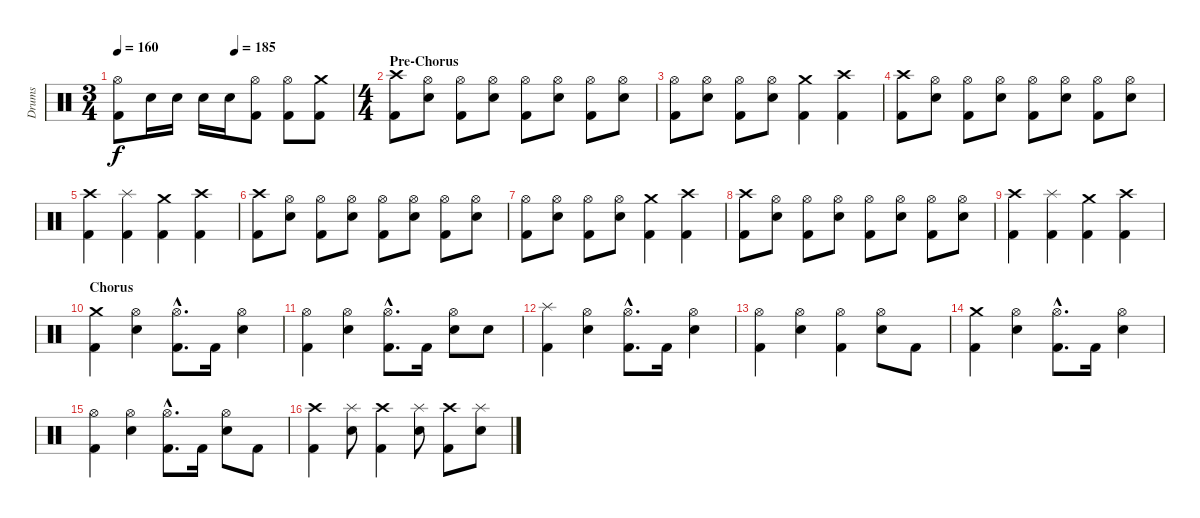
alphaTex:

\track ("Drums" "Drums") {instrument percussion}
\staff {score}
\articulation defaults
\ts (3 4)
\tempo 160
\tempo (185 0.5)
\clef neutral
\ks c
("Hi-Hat (open)" "Kick (hit) 2").8{dy f} "Snare (hit) 2".16 "Snare (hit) 2".16 "Snare (hit) 2".16 "Snare (hit) 2".16 ("Hi-Hat (open)" "Kick (hit) 2").8 ("Hi-Hat (open)" "Kick (hit) 2").8 ("Crash medium (hit)" "Kick (hit) 2").8 |
\ts (4 4)
\section ("" "Pre-Chorus")
("Crash high (hit)" "Kick (hit) 2").8 ("Hi-Hat (open)" "Snare (hit) 2").8 ("Hi-Hat (open)" "Kick (hit) 2").8 ("Hi-Hat (open)" "Snare (hit) 2").8 ("Hi-Hat (open)" "Kick (hit) 2").8 ("Hi-Hat (open)" "Snare (hit) 2").8 ("Hi-Hat (open)" "Kick (hit) 2").8 ("Hi-Hat (open)" "Snare (hit) 2").8 |
("Hi-Hat (open)" "Kick (hit) 2").8 ("Hi-Hat (open)" "Snare (hit) 2").8 ("Hi-Hat (open)" "Kick (hit) 2").8 ("Hi-Hat (open)" "Snare (hit) 2").8 ("Crash medium (hit)" "Kick (hit) 2").4 ("Crash high (hit)" "Kick (hit) 2").4 |
("Crash high (hit)" "Kick (hit) 2").8 ("Hi-Hat (open)" "Snare (hit) 2").8 ("Hi-Hat (open)" "Kick (hit) 2").8 ("Hi-Hat (open)" "Snare (hit) 2").8 ("Hi-Hat (open)" "Kick (hit) 2").8 ("Hi-Hat (open)" "Snare (hit) 2").8 ("Hi-Hat (open)" "Kick (hit) 2").8 ("Hi-Hat (open)" "Snare (hit) 2").8 |
("Crash high (hit)" "Kick (hit) 2").4 ("Splash (hit)" "Kick (hit) 2").4 ("Crash medium (hit)" "Kick (hit) 2").4 ("Crash high (hit)" "Kick (hit) 2").4 |
("Crash high (hit)" "Kick (hit) 2").8 ("Hi-Hat (open)" "Snare (hit) 2").8 ("Hi-Hat (open)" "Kick (hit) 2").8 ("Hi-Hat (open)" "Snare (hit) 2").8 ("Hi-Hat (open)" "Kick (hit) 2").8 ("Hi-Hat (open)" "Snare (hit) 2").8 ("Hi-Hat (open)" "Kick (hit) 2").8 ("Hi-Hat (open)" "Snare (hit) 2").8 |
("Hi-Hat (open)" "Kick (hit) 2").8 ("Hi-Hat (open)" "Snare (hit) 2").8 ("Hi-Hat (open)" "Kick (hit) 2").8 ("Hi-Hat (open)" "Snare (hit) 2").8 ("Crash medium (hit)" "Kick (hit) 2").4 ("Crash high (hit)" "Kick (hit) 2").4 |
("Crash high (hit)" "Kick (hit) 2").8 ("Hi-Hat (open)" "Snare (hit) 2").8 ("Hi-Hat (open)" "Kick (hit) 2").8 ("Hi-Hat (open)" "Snare (hit) 2").8 ("Hi-Hat (open)" "Kick (hit) 2").8 ("Hi-Hat (open)" "Snare (hit) 2").8 ("Hi-Hat (open)" "Kick (hit) 2").8 ("Hi-Hat (open)" "Snare (hit) 2").8 |
("Crash high (hit)" "Kick (hit) 2").4 ("Splash (hit)" "Kick (hit) 2").4 ("Crash medium (hit)" "Kick (hit) 2").4 ("Crash high (hit)" "Kick (hit) 2").4 |
\section ("" "Chorus")
("Crash medium (hit)" "Kick (hit) 2").4 ("Hi-Hat (open)" "Snare (hit) 2").4 ("Hi-Hat (open)"{hac} "Kick (hit) 2"{hac}).8{d} "Kick (hit) 2".16 ("Hi-Hat (open)" "Snare (hit) 2").4 |
("Hi-Hat (open)" "Kick (hit) 2").4 ("Hi-Hat (open)" "Snare (hit) 2").4 ("Hi-Hat (open)"{hac} "Kick (hit) 2"{hac}).8{d} "Kick (hit) 2".16 ("Hi-Hat (open)" "Snare (hit) 2").8 "Snare (hit) 2".8 |
("Splash (hit)" "Kick (hit) 2").4 ("Hi-Hat (open)" "Snare (hit) 2").4 ("Hi-Hat (open)"{hac} "Kick (hit) 2"{hac}).8{d} "Kick (hit) 2".16 ("Hi-Hat (open)" "Snare (hit) 2").4 |
("Hi-Hat (open)" "Kick (hit) 2").4 ("Hi-Hat (open)" "Snare (hit) 2").4 ("Hi-Hat (open)" "Kick (hit) 2").4 ("Hi-Hat (open)" "Snare (hit) 2").8 "Kick (hit) 2".8 |
("Crash medium (hit)" "Kick (hit) 2").4 ("Hi-Hat (open)" "Snare (hit) 2").4 ("Hi-Hat (open)"{hac} "Kick (hit) 2"{hac}).8{d} "Kick (hit) 2".16 ("Hi-Hat (open)" "Snare (hit) 2").4 |
("Hi-Hat (open)" "Kick (hit) 2").4 ("Hi-Hat (open)" "Snare (hit) 2").4 ("Hi-Hat (open)"{hac} "Kick (hit) 2"{hac}).8{d} "Kick (hit) 2".16 ("Hi-Hat (open)" "Snare (hit) 2").8 "Kick (hit) 2".8 |
("Crash high (hit)" "Kick (hit) 2").4 ("Splash (hit)" "Snare (hit) 2").8 ("Crash high (hit)" "Kick (hit) 2").4 ("Splash (hit)" "Snare (hit) 2").8 ("Crash high (hit)" "Kick (hit) 2").8 ("Splash (hit)" "Snare (hit) 2").8
